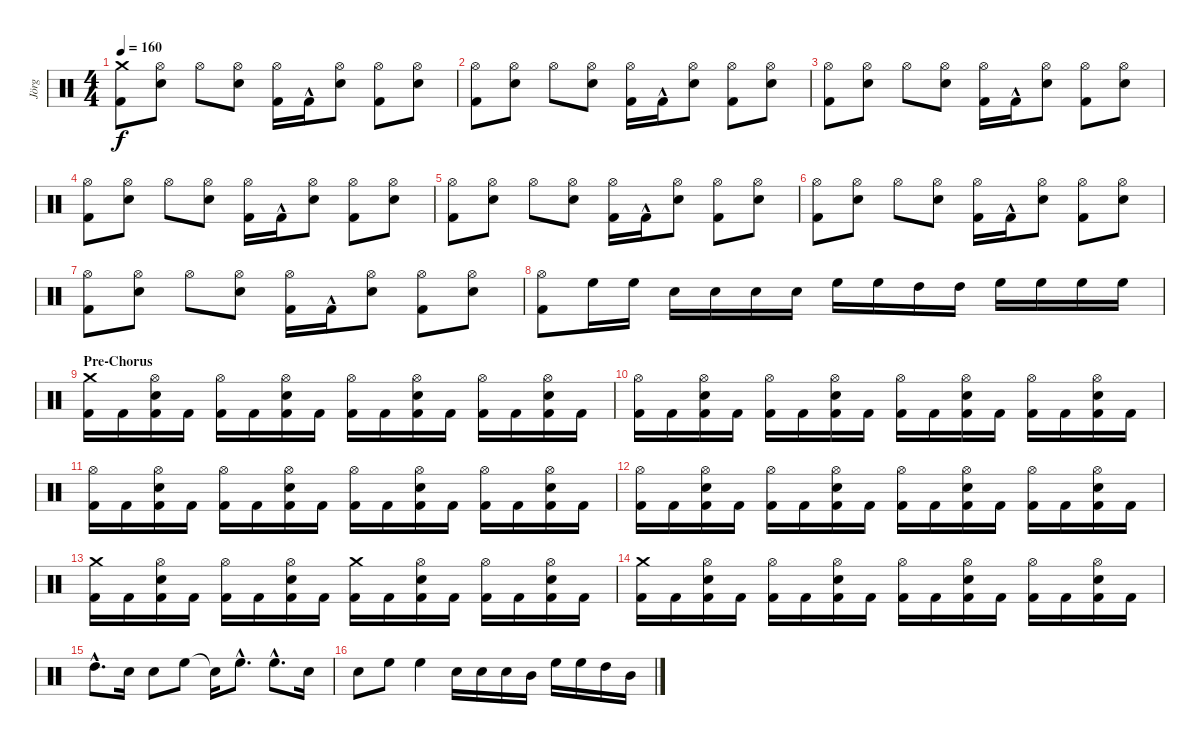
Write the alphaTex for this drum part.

\track ("Jörg" "Jörg") {instrument percussion}
\staff {score}
\articulation defaults
\ts (4 4)
\tempo 160
\clef neutral
\ks c
("Kick (hit) 2" "Crash medium (hit)").8{dy f} ("Snare (hit) 2" "Hi-Hat (open)").8 "Hi-Hat (open)".8 ("Snare (hit) 2" "Hi-Hat (open)").8 ("Kick (hit) 2" "Hi-Hat (open)").16 "Kick (hit) 2"{hac}.16 ("Snare (hit) 2" "Hi-Hat (open)").8 ("Kick (hit) 2" "Hi-Hat (open)").8 ("Snare (hit) 2" "Hi-Hat (open)").8 |
("Hi-Hat (open)" "Kick (hit) 2").8 ("Snare (hit) 2" "Hi-Hat (open)").8 "Hi-Hat (open)".8 ("Snare (hit) 2" "Hi-Hat (open)").8 ("Kick (hit) 2" "Hi-Hat (open)").16 "Kick (hit) 2"{hac}.16 ("Snare (hit) 2" "Hi-Hat (open)").8 ("Kick (hit) 2" "Hi-Hat (open)").8 ("Snare (hit) 2" "Hi-Hat (open)").8 |
("Hi-Hat (open)" "Kick (hit) 2").8 ("Snare (hit) 2" "Hi-Hat (open)").8 "Hi-Hat (open)".8 ("Snare (hit) 2" "Hi-Hat (open)").8 ("Kick (hit) 2" "Hi-Hat (open)").16 "Kick (hit) 2"{hac}.16 ("Snare (hit) 2" "Hi-Hat (open)").8 ("Kick (hit) 2" "Hi-Hat (open)").8 ("Snare (hit) 2" "Hi-Hat (open)").8 |
("Hi-Hat (open)" "Kick (hit) 2").8 ("Snare (hit) 2" "Hi-Hat (open)").8 "Hi-Hat (open)".8 ("Snare (hit) 2" "Hi-Hat (open)").8 ("Kick (hit) 2" "Hi-Hat (open)").16 "Kick (hit) 2"{hac}.16 ("Snare (hit) 2" "Hi-Hat (open)").8 ("Kick (hit) 2" "Hi-Hat (open)").8 ("Snare (hit) 2" "Hi-Hat (open)").8 |
("Hi-Hat (open)" "Kick (hit) 2").8 ("Snare (hit) 2" "Hi-Hat (open)").8 "Hi-Hat (open)".8 ("Snare (hit) 2" "Hi-Hat (open)").8 ("Kick (hit) 2" "Hi-Hat (open)").16 "Kick (hit) 2"{hac}.16 ("Snare (hit) 2" "Hi-Hat (open)").8 ("Kick (hit) 2" "Hi-Hat (open)").8 ("Snare (hit) 2" "Hi-Hat (open)").8 |
("Hi-Hat (open)" "Kick (hit) 2").8 ("Snare (hit) 2" "Hi-Hat (open)").8 "Hi-Hat (open)".8 ("Snare (hit) 2" "Hi-Hat (open)").8 ("Kick (hit) 2" "Hi-Hat (open)").16 "Kick (hit) 2"{hac}.16 ("Snare (hit) 2" "Hi-Hat (open)").8 ("Kick (hit) 2" "Hi-Hat (open)").8 ("Snare (hit) 2" "Hi-Hat (open)").8 |
("Hi-Hat (open)" "Kick (hit) 2").8 ("Snare (hit) 2" "Hi-Hat (open)").8 "Hi-Hat (open)".8 ("Snare (hit) 2" "Hi-Hat (open)").8 ("Kick (hit) 2" "Hi-Hat (open)").16 "Kick (hit) 2"{hac}.16 ("Snare (hit) 2" "Hi-Hat (open)").8 ("Kick (hit) 2" "Hi-Hat (open)").8 ("Snare (hit) 2" "Hi-Hat (open)").8 |
("Kick (hit) 2" "Hi-Hat (open)").8 "High Floor Tom (hit)".16 "High Floor Tom (hit)".16 "Snare (hit) 2".16 "Snare (hit) 2".16 "Snare (hit) 2".16 "Snare (hit) 2".16 "High Floor Tom (hit)".16 "High Floor Tom (hit)".16 "High Tom (hit)".16 "High Tom (hit)".16 "High Floor Tom (hit)".16 "High Floor Tom (hit)".16 "High Floor Tom (hit)".16 "High Floor Tom (hit)".16 |
\section ("" "Pre-Chorus")
("Crash medium (hit)" "Kick (hit) 2").16 "Kick (hit) 2".16 ("Snare (hit) 2" "Hi-Hat (open)" "Kick (hit) 2").16 "Kick (hit) 2".16 ("Hi-Hat (open)" "Kick (hit) 2").16 "Kick (hit) 2".16 ("Snare (hit) 2" "Hi-Hat (open)" "Kick (hit) 2").16 "Kick (hit) 2".16 ("Hi-Hat (open)" "Kick (hit) 2").16 "Kick (hit) 2".16 ("Snare (hit) 2" "Hi-Hat (open)" "Kick (hit) 2").16 "Kick (hit) 2".16 ("Hi-Hat (open)" "Kick (hit) 2").16 "Kick (hit) 2".16 ("Snare (hit) 2" "Hi-Hat (open)" "Kick (hit) 2").16 "Kick (hit) 2".16 |
("Hi-Hat (open)" "Kick (hit) 2").16 "Kick (hit) 2".16 ("Hi-Hat (open)" "Snare (hit) 2" "Kick (hit) 2").16 "Kick (hit) 2".16 ("Hi-Hat (open)" "Kick (hit) 2").16 "Kick (hit) 2".16 ("Hi-Hat (open)" "Snare (hit) 2" "Kick (hit) 2").16 "Kick (hit) 2".16 ("Hi-Hat (open)" "Kick (hit) 2").16 "Kick (hit) 2".16 ("Hi-Hat (open)" "Snare (hit) 2" "Kick (hit) 2").16 "Kick (hit) 2".16 ("Hi-Hat (open)" "Kick (hit) 2").16 "Kick (hit) 2".16 ("Hi-Hat (open)" "Snare (hit) 2" "Kick (hit) 2").16 "Kick (hit) 2".16 |
("Hi-Hat (open)" "Kick (hit) 2").16 "Kick (hit) 2".16 ("Hi-Hat (open)" "Snare (hit) 2" "Kick (hit) 2").16 "Kick (hit) 2".16 ("Hi-Hat (open)" "Kick (hit) 2").16 "Kick (hit) 2".16 ("Hi-Hat (open)" "Snare (hit) 2" "Kick (hit) 2").16 "Kick (hit) 2".16 ("Hi-Hat (open)" "Kick (hit) 2").16 "Kick (hit) 2".16 ("Hi-Hat (open)" "Snare (hit) 2" "Kick (hit) 2").16 "Kick (hit) 2".16 ("Hi-Hat (open)" "Kick (hit) 2").16 "Kick (hit) 2".16 ("Hi-Hat (open)" "Snare (hit) 2" "Kick (hit) 2").16 "Kick (hit) 2".16 |
("Hi-Hat (open)" "Kick (hit) 2").16 "Kick (hit) 2".16 ("Hi-Hat (open)" "Snare (hit) 2" "Kick (hit) 2").16 "Kick (hit) 2".16 ("Hi-Hat (open)" "Kick (hit) 2").16 "Kick (hit) 2".16 ("Hi-Hat (open)" "Snare (hit) 2" "Kick (hit) 2").16 "Kick (hit) 2".16 ("Hi-Hat (open)" "Kick (hit) 2").16 "Kick (hit) 2".16 ("Hi-Hat (open)" "Snare (hit) 2" "Kick (hit) 2").16 "Kick (hit) 2".16 ("Hi-Hat (open)" "Kick (hit) 2").16 "Kick (hit) 2".16 ("Hi-Hat (open)" "Snare (hit) 2" "Kick (hit) 2").16 "Kick (hit) 2".16 |
("Crash medium (hit)" "Kick (hit) 2").16 "Kick (hit) 2".16 ("Hi-Hat (open)" "Snare (hit) 2" "Kick (hit) 2").16 "Kick (hit) 2".16 ("Hi-Hat (open)" "Kick (hit) 2").16 "Kick (hit) 2".16 ("Hi-Hat (open)" "Snare (hit) 2" "Kick (hit) 2").16 "Kick (hit) 2".16 ("Crash medium (hit)" "Kick (hit) 2").16 "Kick (hit) 2".16 ("Hi-Hat (open)" "Snare (hit) 2" "Kick (hit) 2").16 "Kick (hit) 2".16 ("Hi-Hat (open)" "Kick (hit) 2").16 "Kick (hit) 2".16 ("Hi-Hat (open)" "Snare (hit) 2" "Kick (hit) 2").16 "Kick (hit) 2".16 |
("Crash medium (hit)" "Kick (hit) 2").16 "Kick (hit) 2".16 ("Hi-Hat (open)" "Snare (hit) 2" "Kick (hit) 2").16 "Kick (hit) 2".16 ("Hi-Hat (open)" "Kick (hit) 2").16 "Kick (hit) 2".16 ("Hi-Hat (open)" "Snare (hit) 2" "Kick (hit) 2").16 "Kick (hit) 2".16 ("Hi-Hat (open)" "Kick (hit) 2").16 "Kick (hit) 2".16 ("Hi-Hat (open)" "Snare (hit) 2" "Kick (hit) 2").16 "Kick (hit) 2".16 ("Hi-Hat (open)" "Kick (hit) 2").16 "Kick (hit) 2".16 ("Hi-Hat (open)" "Snare (hit) 2" "Kick (hit) 2").16 "Kick (hit) 2".16 |
"High Tom (hit)"{hac}.8{d} "Snare (hit) 2".16 "Snare (hit) 2".8 "High Floor Tom (hit)".8 "Snare (hit)"{t}.16 "High Floor Tom (hit)"{hac}.8{d} "High Floor Tom (hit)"{hac}.8{d} "Snare (hit) 2".16 |
"Snare (hit) 2".8 "High Floor Tom (hit)".8 "High Floor Tom (hit)".4 "Snare (hit) 2".16 "Snare (hit) 2".16 "Snare (hit) 2".16 "Mid Tom (hit)".16 "High Floor Tom (hit)".16 "High Floor Tom (hit)".16 "High Tom (hit)".16 "Mid Tom (hit)".16
